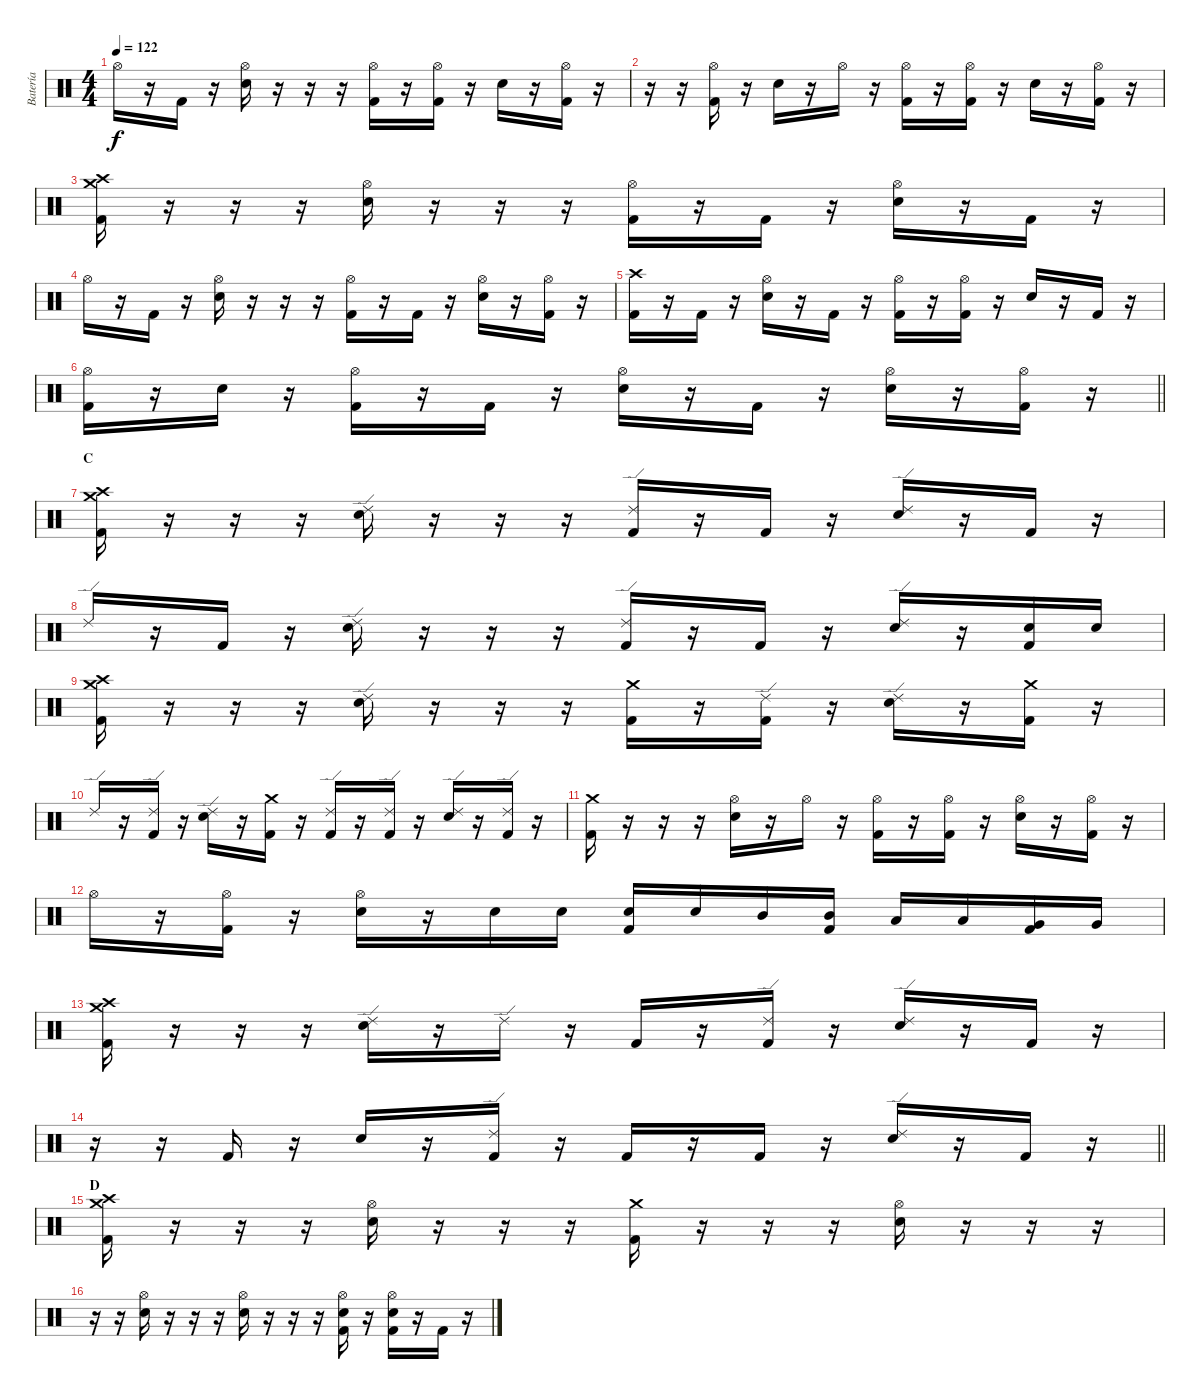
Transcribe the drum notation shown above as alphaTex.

\track ("Batería" "Batería") {instrument percussion}
\staff {score}
\articulation defaults
\ts (4 4)
\tempo 122
\clef neutral
\ks c "Hi-Hat (open)".16{dy f}
r.16 "Kick (hit) 2".16 r.16 ("Electric Snare (hit)" "Hi-Hat (open)").16 r.16 r.16 r.16 ("Kick (hit) 2" "Hi-Hat (open)").16 r.16 ("Kick (hit) 2" "Hi-Hat (open)").16 r.16 "Electric Snare (hit)".16 r.16 ("Kick (hit) 2" "Hi-Hat (open)").16 r.16 |
r.16 r.16 ("Kick (hit) 2" "Hi-Hat (open)").16 r.16 "Electric Snare (hit)".16 r.16 "Hi-Hat (open)".16 r.16 ("Kick (hit) 2" "Hi-Hat (open)").16 r.16 ("Kick (hit) 2" "Hi-Hat (open)").16 r.16 "Electric Snare (hit)".16 r.16 ("Kick (hit) 2" "Hi-Hat (open)").16 r.16 |
("Crash high (hit)" "Kick (hit) 2" "Crash medium (hit)").16 r.16 r.16 r.16 ("Electric Snare (hit)" "Hi-Hat (open)").16 r.16 r.16 r.16 ("Kick (hit) 2" "Hi-Hat (open)").16 r.16 "Kick (hit) 2".16 r.16 ("Electric Snare (hit)" "Hi-Hat (open)").16 r.16 "Kick (hit) 2".16 r.16 |
"Hi-Hat (open)".16 r.16 "Kick (hit) 2".16 r.16 ("Electric Snare (hit)" "Hi-Hat (open)").16 r.16 r.16 r.16 ("Kick (hit) 2" "Hi-Hat (open)").16 r.16 "Kick (hit) 2".16 r.16 ("Electric Snare (hit)" "Hi-Hat (open)").16 r.16 ("Kick (hit) 2" "Hi-Hat (open)").16 r.16 |
("Kick (hit) 2" "Crash high (hit)").16 r.16 "Kick (hit) 2".16 r.16 ("Electric Snare (hit)" "Hi-Hat (open)").16 r.16 "Kick (hit) 2".16 r.16 ("Kick (hit) 2" "Hi-Hat (open)").16 r.16 ("Kick (hit) 2" "Hi-Hat (open)").16 r.16 "Electric Snare (hit)".16 r.16 "Kick (hit) 2".16 r.16 |
\barLineRight lightlight
("Kick (hit) 2" "Hi-Hat (open)").16 r.16 "Electric Snare (hit)".16 r.16 ("Kick (hit) 2" "Hi-Hat (open)").16 r.16 "Kick (hit) 2".16 r.16 ("Electric Snare (hit)" "Hi-Hat (open)").16 r.16 "Kick (hit) 2".16 r.16 ("Electric Snare (hit)" "Hi-Hat (open)").16 r.16 ("Kick (hit) 2" "Hi-Hat (open)").16 r.16 |
\section ("" "C")
("Crash medium (hit)" "Kick (hit) 2" "Crash high (hit)").16 r.16 r.16 r.16 ("Electric Snare (hit)" "Ride (edge) 2").16 r.16 r.16 r.16 ("Kick (hit) 2" "Ride (edge) 2").16 r.16 "Kick (hit) 2".16 r.16 ("Electric Snare (hit)" "Ride (edge) 2").16 r.16 "Kick (hit) 2".16 r.16 |
"Ride (edge) 2".16 r.16 "Kick (hit) 2".16 r.16 ("Electric Snare (hit)" "Ride (edge) 2").16 r.16 r.16 r.16 ("Kick (hit) 2" "Ride (edge) 2").16 r.16 "Kick (hit) 2".16 r.16 ("Electric Snare (hit)" "Ride (edge) 2").16 r.16 ("Electric Snare (hit)" "Kick (hit) 2").16 "Electric Snare (hit)".16 |
("Crash high (hit)" "Kick (hit) 2" "Crash medium (hit)").16 r.16 r.16 r.16 ("Electric Snare (hit)" "Ride (edge) 2").16 r.16 r.16 r.16 ("Kick (hit) 2" "Crash medium (hit)").16 r.16 ("Kick (hit) 2" "Ride (edge) 2").16 r.16 ("Electric Snare (hit)" "Ride (edge) 2").16 r.16 ("Kick (hit) 2" "Crash medium (hit)").16 r.16 |
"Ride (edge) 2".16 r.16 ("Kick (hit) 2" "Ride (edge) 2").16 r.16 ("Electric Snare (hit)" "Ride (edge) 2").16 r.16 ("Kick (hit) 2" "Crash medium (hit)").16 r.16 ("Kick (hit) 2" "Ride (edge) 2").16 r.16 ("Kick (hit) 2" "Ride (edge) 2").16 r.16 ("Electric Snare (hit)" "Ride (edge) 2").16 r.16 ("Kick (hit) 2" "Ride (edge) 2").16 r.16 |
("Kick (hit) 2" "Crash medium (hit)").16 r.16 r.16 r.16 ("Electric Snare (hit)" "Hi-Hat (open)").16 r.16 "Hi-Hat (open)".16 r.16 ("Kick (hit) 2" "Hi-Hat (open)").16 r.16 ("Kick (hit) 2" "Hi-Hat (open)").16 r.16 ("Electric Snare (hit)" "Hi-Hat (open)").16 r.16 ("Kick (hit) 2" "Hi-Hat (open)").16 r.16 |
"Hi-Hat (open)".16 r.16 ("Kick (hit) 2" "Hi-Hat (open)").16 r.16 ("Electric Snare (hit)" "Hi-Hat (open)").16 r.16 "Electric Snare (hit)".16 "Electric Snare (hit)".16 ("Electric Snare (hit)" "Kick (hit) 2").16 "Electric Snare (hit)".16 "Mid Tom (hit)".16 ("Mid Tom (hit)" "Kick (hit) 2").16 "Low Tom (hit)".16 "Low Tom (hit)".16 ("Very Low Tom (hit)" "Kick (hit) 2").16 "Very Low Tom (hit)".16 |
("Crash high (hit)" "Kick (hit) 2" "Crash medium (hit)").16 r.16 r.16 r.16 ("Electric Snare (hit)" "Ride (edge) 2").16 r.16 "Ride (edge) 2".16 r.16 "Kick (hit) 2".16 r.16 ("Kick (hit) 2" "Ride (edge) 2").16 r.16 ("Electric Snare (hit)" "Ride (edge) 2").16 r.16 "Kick (hit) 2".16 r.16 |
\barLineRight lightlight
r.16 r.16 "Kick (hit) 2".16 r.16 "Electric Snare (hit)".16 r.16 ("Kick (hit) 2" "Ride (edge) 2").16 r.16 "Kick (hit) 2".16 r.16 "Kick (hit) 2".16 r.16 ("Electric Snare (hit)" "Ride (edge) 2").16 r.16 "Kick (hit) 2".16 r.16 |
\section ("" "D")
("Crash medium (hit)" "Kick (hit) 2" "Crash high (hit)").16 r.16 r.16 r.16 ("Electric Snare (hit)" "Hi-Hat (open)").16 r.16 r.16 r.16 ("Kick (hit) 2" "Crash medium (hit)").16 r.16 r.16 r.16 ("Electric Snare (hit)" "Hi-Hat (open)").16 r.16 r.16 r.16 |
r.16 r.16 ("Electric Snare (hit)" "Hi-Hat (open)").16 r.16 r.16 r.16 ("Electric Snare (hit)" "Hi-Hat (open)").16 r.16 r.16 r.16 ("Electric Snare (hit)" "Kick (hit) 2" "Hi-Hat (open)").16 r.16 ("Electric Snare (hit)" "Kick (hit) 2" "Hi-Hat (open)").16 r.16 "Kick (hit) 2".16 r.16
